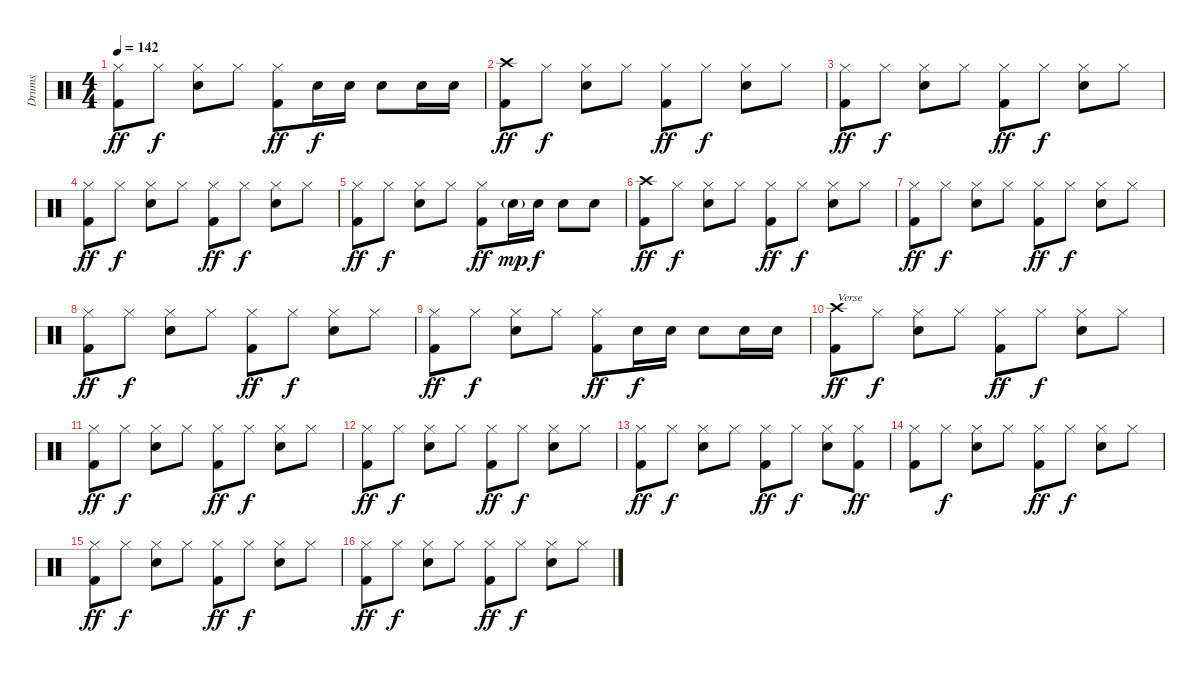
\track ("Drums" "Drums") {instrument percussion}
\staff {score}
\articulation defaults
\ts (4 4)
\tempo 142
\clef neutral
\ks c
("Hi-Hat (closed)" "Kick (hit) 2").8{dy ff} "Hi-Hat (closed)".8{dy f} ("Hi-Hat (closed)" "Snare (hit) 2").8 "Hi-Hat (closed)".8 ("Hi-Hat (closed)" "Kick (hit) 2").8{dy ff} "Snare (hit) 2".16{dy f} "Snare (hit) 2".16 "Snare (hit) 2".8 "Snare (hit) 2".16 "Snare (hit) 2".16 |
("Crash high (hit)" "Kick (hit) 2").8{dy ff} "Hi-Hat (closed)".8{dy f} ("Hi-Hat (closed)" "Snare (hit) 2").8 "Hi-Hat (closed)".8 ("Hi-Hat (closed)" "Kick (hit) 2").8{dy ff} "Hi-Hat (closed)".8{dy f} ("Hi-Hat (closed)" "Snare (hit) 2").8 "Hi-Hat (closed)".8 |
("Hi-Hat (closed)" "Kick (hit) 2").8{dy ff} "Hi-Hat (closed)".8{dy f} ("Hi-Hat (closed)" "Snare (hit) 2").8 "Hi-Hat (closed)".8 ("Hi-Hat (closed)" "Kick (hit) 2").8{dy ff} "Hi-Hat (closed)".8{dy f} ("Hi-Hat (closed)" "Snare (hit) 2").8 "Hi-Hat (closed)".8 |
("Hi-Hat (closed)" "Kick (hit) 2").8{dy ff} "Hi-Hat (closed)".8{dy f} ("Hi-Hat (closed)" "Snare (hit) 2").8 "Hi-Hat (closed)".8 ("Hi-Hat (closed)" "Kick (hit) 2").8{dy ff} "Hi-Hat (closed)".8{dy f} ("Hi-Hat (closed)" "Snare (hit) 2").8 "Hi-Hat (closed)".8 |
("Hi-Hat (closed)" "Kick (hit) 2").8{dy ff} "Hi-Hat (closed)".8{dy f} ("Hi-Hat (closed)" "Snare (hit) 2").8 "Hi-Hat (closed)".8 ("Hi-Hat (closed)" "Kick (hit) 2").8{dy ff} "Snare (hit) 2"{g}.16{dy mp} "Snare (hit) 2".16{dy f} "Snare (hit) 2".8 "Snare (hit) 2".8 |
("Crash high (hit)" "Kick (hit) 2").8{dy ff} "Hi-Hat (closed)".8{dy f} ("Hi-Hat (closed)" "Snare (hit) 2").8 "Hi-Hat (closed)".8 ("Hi-Hat (closed)" "Kick (hit) 2").8{dy ff} "Hi-Hat (closed)".8{dy f} ("Hi-Hat (closed)" "Snare (hit) 2").8 "Hi-Hat (closed)".8 |
("Hi-Hat (closed)" "Kick (hit) 2").8{dy ff} "Hi-Hat (closed)".8{dy f} ("Hi-Hat (closed)" "Snare (hit) 2").8 "Hi-Hat (closed)".8 ("Hi-Hat (closed)" "Kick (hit) 2").8{dy ff} "Hi-Hat (closed)".8{dy f} ("Hi-Hat (closed)" "Snare (hit) 2").8 "Hi-Hat (closed)".8 |
("Hi-Hat (closed)" "Kick (hit) 2").8{dy ff} "Hi-Hat (closed)".8{dy f} ("Hi-Hat (closed)" "Snare (hit) 2").8 "Hi-Hat (closed)".8 ("Hi-Hat (closed)" "Kick (hit) 2").8{dy ff} "Hi-Hat (closed)".8{dy f} ("Hi-Hat (closed)" "Snare (hit) 2").8 "Hi-Hat (closed)".8 |
("Hi-Hat (closed)" "Kick (hit) 2").8{dy ff} "Hi-Hat (closed)".8{dy f} ("Hi-Hat (closed)" "Snare (hit) 2").8 "Hi-Hat (closed)".8 ("Hi-Hat (closed)" "Kick (hit) 2").8{dy ff} "Snare (hit) 2".16{dy f} "Snare (hit) 2".16 "Snare (hit) 2".8 "Snare (hit) 2".16 "Snare (hit) 2".16 |
("Crash high (hit)" "Kick (hit) 2").8{txt "Verse" dy ff} "Hi-Hat (closed)".8{dy f} ("Hi-Hat (closed)" "Snare (hit) 2").8 "Hi-Hat (closed)".8 ("Hi-Hat (closed)" "Kick (hit) 2").8{dy ff} "Hi-Hat (closed)".8{dy f} ("Hi-Hat (closed)" "Snare (hit) 2").8 "Hi-Hat (closed)".8 |
("Hi-Hat (closed)" "Kick (hit) 2").8{dy ff} "Hi-Hat (closed)".8{dy f} ("Hi-Hat (closed)" "Snare (hit) 2").8 "Hi-Hat (closed)".8 ("Hi-Hat (closed)" "Kick (hit) 2").8{dy ff} "Hi-Hat (closed)".8{dy f} ("Hi-Hat (closed)" "Snare (hit) 2").8 "Hi-Hat (closed)".8 |
("Hi-Hat (closed)" "Kick (hit) 2").8{dy ff} "Hi-Hat (closed)".8{dy f} ("Hi-Hat (closed)" "Snare (hit) 2").8 "Hi-Hat (closed)".8 ("Hi-Hat (closed)" "Kick (hit) 2").8{dy ff} "Hi-Hat (closed)".8{dy f} ("Hi-Hat (closed)" "Snare (hit) 2").8 "Hi-Hat (closed)".8 |
("Hi-Hat (closed)" "Kick (hit) 2").8{dy ff} "Hi-Hat (closed)".8{dy f} ("Hi-Hat (closed)" "Snare (hit) 2").8 "Hi-Hat (closed)".8 ("Hi-Hat (closed)" "Kick (hit) 2").8{dy ff} "Hi-Hat (closed)".8{dy f} ("Hi-Hat (closed)" "Snare (hit) 2").8 ("Hi-Hat (closed)" "Kick (hit) 2").8{dy ff} |
("Hi-Hat (closed)" "Kick (hit) 2").8 "Hi-Hat (closed)".8{dy f} ("Hi-Hat (closed)" "Snare (hit) 2").8 "Hi-Hat (closed)".8 ("Hi-Hat (closed)" "Kick (hit) 2").8{dy ff} "Hi-Hat (closed)".8{dy f} ("Hi-Hat (closed)" "Snare (hit) 2").8 "Hi-Hat (closed)".8 |
("Hi-Hat (closed)" "Kick (hit) 2").8{dy ff} "Hi-Hat (closed)".8{dy f} ("Hi-Hat (closed)" "Snare (hit) 2").8 "Hi-Hat (closed)".8 ("Hi-Hat (closed)" "Kick (hit) 2").8{dy ff} "Hi-Hat (closed)".8{dy f} ("Hi-Hat (closed)" "Snare (hit) 2").8 "Hi-Hat (closed)".8 |
("Hi-Hat (closed)" "Kick (hit) 2").8{dy ff} "Hi-Hat (closed)".8{dy f} ("Hi-Hat (closed)" "Snare (hit) 2").8 "Hi-Hat (closed)".8 ("Hi-Hat (closed)" "Kick (hit) 2").8{dy ff} "Hi-Hat (closed)".8{dy f} ("Hi-Hat (closed)" "Snare (hit) 2").8 "Hi-Hat (closed)".8
